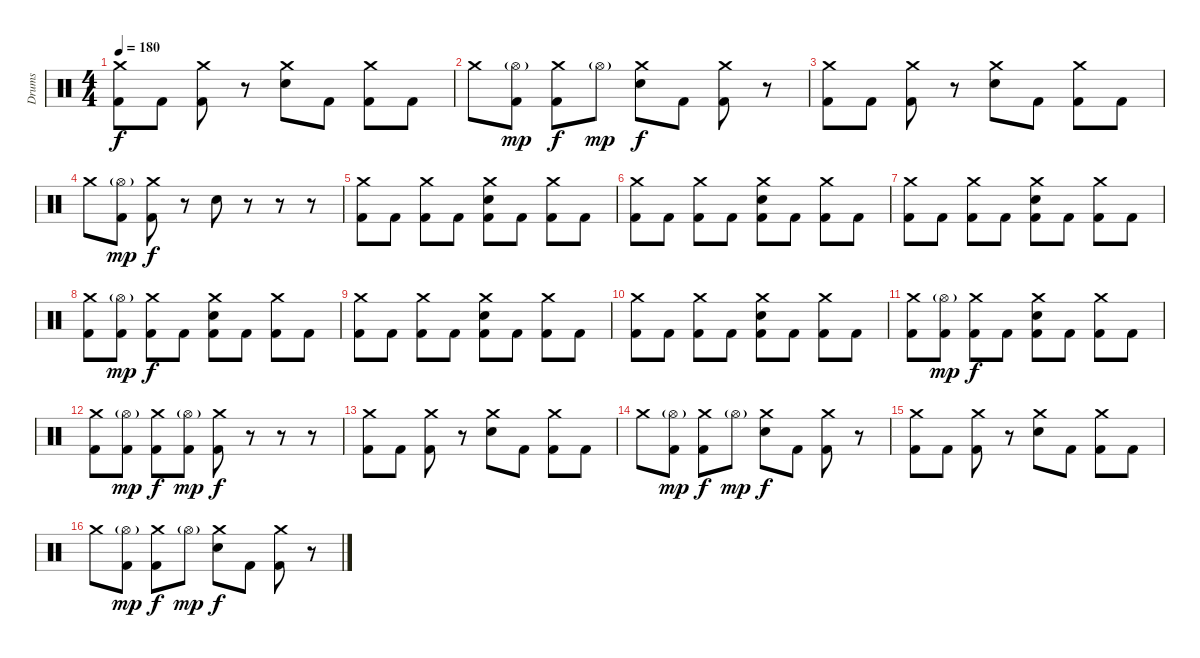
\track ("Drums" "Drums") {instrument percussion}
\staff {score}
\articulation defaults
\ts (4 4)
\tempo 180
\clef neutral
\ks c
("Crash medium (hit)" "Kick (hit) 2").8{dy f} "Kick (hit) 2".8 ("Crash medium (hit)" "Kick (hit) 2").8 r.8 ("Crash medium (hit)" "Electric Snare (hit)").8 "Kick (hit) 2".8 ("Crash medium (hit)" "Kick (hit) 2").8 "Kick (hit) 2".8 |
"Crash medium (hit)".8 ("Hi-Hat (open)"{g} "Kick (hit) 2").8{dy mp} ("Crash medium (hit)" "Kick (hit) 2").8{dy f} "Hi-Hat (open)"{g}.8{dy mp} ("Crash medium (hit)" "Electric Snare (hit)").8{dy f} "Kick (hit) 2".8 ("Crash medium (hit)" "Kick (hit) 2").8 r.8 |
("Crash medium (hit)" "Kick (hit) 2").8 "Kick (hit) 2".8 ("Crash medium (hit)" "Kick (hit) 2").8 r.8 ("Crash medium (hit)" "Electric Snare (hit)").8 "Kick (hit) 2".8 ("Crash medium (hit)" "Kick (hit) 2").8 "Kick (hit) 2".8 |
"Crash medium (hit)".8 ("Hi-Hat (open)"{g} "Kick (hit) 2").8{dy mp} ("Crash medium (hit)" "Kick (hit) 2").8{dy f} r.8 "Electric Snare (hit)".8 r.8 r.8 r.8 |
("Crash medium (hit)" "Kick (hit) 2").8 "Kick (hit) 2".8 ("Crash medium (hit)" "Kick (hit) 2").8 "Kick (hit) 2".8 ("Crash medium (hit)" "Electric Snare (hit)" "Kick (hit) 2").8 "Kick (hit) 2".8 ("Crash medium (hit)" "Kick (hit) 2").8 "Kick (hit) 2".8 |
("Crash medium (hit)" "Kick (hit) 2").8 "Kick (hit) 2".8 ("Crash medium (hit)" "Kick (hit) 2").8 "Kick (hit) 2".8 ("Crash medium (hit)" "Electric Snare (hit)" "Kick (hit) 2").8 "Kick (hit) 2".8 ("Crash medium (hit)" "Kick (hit) 2").8 "Kick (hit) 2".8 |
("Crash medium (hit)" "Kick (hit) 2").8 "Kick (hit) 2".8 ("Crash medium (hit)" "Kick (hit) 2").8 "Kick (hit) 2".8 ("Crash medium (hit)" "Electric Snare (hit)" "Kick (hit) 2").8 "Kick (hit) 2".8 ("Crash medium (hit)" "Kick (hit) 2").8 "Kick (hit) 2".8 |
("Crash medium (hit)" "Kick (hit) 2").8 ("Hi-Hat (open)"{g} "Kick (hit) 2").8{dy mp} ("Crash medium (hit)" "Kick (hit) 2").8{dy f} "Kick (hit) 2".8 ("Crash medium (hit)" "Electric Snare (hit)" "Kick (hit) 2").8 "Kick (hit) 2".8 ("Crash medium (hit)" "Kick (hit) 2").8 "Kick (hit) 2".8 |
("Crash medium (hit)" "Kick (hit) 2").8 "Kick (hit) 2".8 ("Crash medium (hit)" "Kick (hit) 2").8 "Kick (hit) 2".8 ("Crash medium (hit)" "Electric Snare (hit)" "Kick (hit) 2").8 "Kick (hit) 2".8 ("Crash medium (hit)" "Kick (hit) 2").8 "Kick (hit) 2".8 |
("Crash medium (hit)" "Kick (hit) 2").8 "Kick (hit) 2".8 ("Crash medium (hit)" "Kick (hit) 2").8 "Kick (hit) 2".8 ("Crash medium (hit)" "Electric Snare (hit)" "Kick (hit) 2").8 "Kick (hit) 2".8 ("Crash medium (hit)" "Kick (hit) 2").8 "Kick (hit) 2".8 |
("Crash medium (hit)" "Kick (hit) 2").8 ("Hi-Hat (open)"{g} "Kick (hit) 2").8{dy mp} ("Crash medium (hit)" "Kick (hit) 2").8{dy f} "Kick (hit) 2".8 ("Crash medium (hit)" "Electric Snare (hit)" "Kick (hit) 2").8 "Kick (hit) 2".8 ("Crash medium (hit)" "Kick (hit) 2").8 "Kick (hit) 2".8 |
("Crash medium (hit)" "Kick (hit) 2").8 ("Hi-Hat (open)"{g} "Kick (hit) 2").8{dy mp} ("Crash medium (hit)" "Kick (hit) 2").8{dy f} ("Hi-Hat (open)"{g} "Kick (hit) 2").8{dy mp} ("Crash medium (hit)" "Kick (hit) 2").8{dy f} r.8 r.8 r.8 |
("Crash medium (hit)" "Kick (hit) 2").8 "Kick (hit) 2".8 ("Crash medium (hit)" "Kick (hit) 2").8 r.8 ("Crash medium (hit)" "Electric Snare (hit)").8 "Kick (hit) 2".8 ("Crash medium (hit)" "Kick (hit) 2").8 "Kick (hit) 2".8 |
"Crash medium (hit)".8 ("Hi-Hat (open)"{g} "Kick (hit) 2").8{dy mp} ("Crash medium (hit)" "Kick (hit) 2").8{dy f} "Hi-Hat (open)"{g}.8{dy mp} ("Crash medium (hit)" "Electric Snare (hit)").8{dy f} "Kick (hit) 2".8 ("Crash medium (hit)" "Kick (hit) 2").8 r.8 |
("Crash medium (hit)" "Kick (hit) 2").8 "Kick (hit) 2".8 ("Crash medium (hit)" "Kick (hit) 2").8 r.8 ("Crash medium (hit)" "Electric Snare (hit)").8 "Kick (hit) 2".8 ("Crash medium (hit)" "Kick (hit) 2").8 "Kick (hit) 2".8 |
"Crash medium (hit)".8 ("Hi-Hat (open)"{g} "Kick (hit) 2").8{dy mp} ("Crash medium (hit)" "Kick (hit) 2").8{dy f} "Hi-Hat (open)"{g}.8{dy mp} ("Crash medium (hit)" "Electric Snare (hit)").8{dy f} "Kick (hit) 2".8 ("Crash medium (hit)" "Kick (hit) 2").8 r.8
